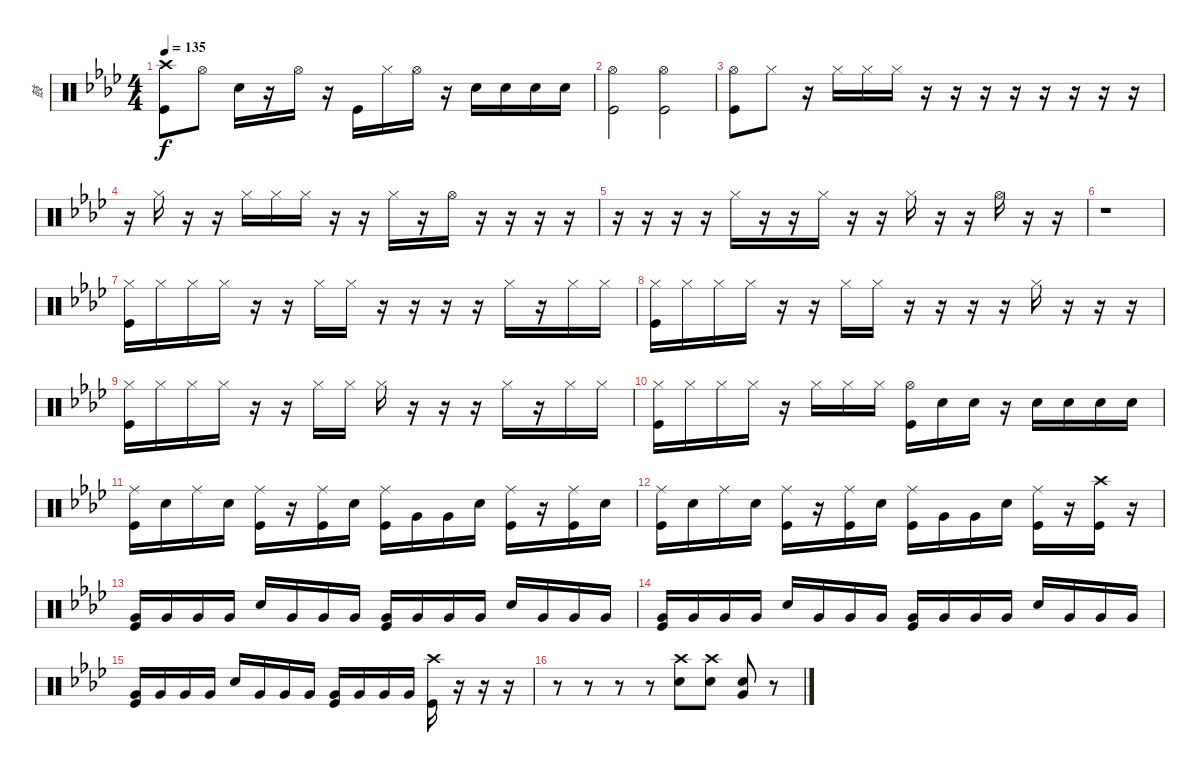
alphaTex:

\track ("鼓" "鼓") {instrument percussion}
\staff {score}
\articulation defaults
\ts (4 4)
\tempo 135
\clef neutral
\ks ab
("Crash high (hit)" "Kick (hit)").8{dy f} "Hi-Hat (open)".8 "Snare (hit) 2".16 r.16 "Hi-Hat (open)".16 r.16 "Kick (hit)".16 "Hi-Hat (closed)".16 "Hi-Hat (open)".16 r.16 "Snare (hit) 2".16 "Snare (hit) 2".16 "Snare (hit) 2".16 "Snare (hit) 2".16 |
("Hi-Hat (open)" "Kick (hit)").2 ("Hi-Hat (open)" "Kick (hit)").2 |
("Hi-Hat (open)" "Kick (hit)").8 "Hi-Hat (closed)".8 r.16 "Hi-Hat (closed)".16 "Hi-Hat (closed)".16 "Hi-Hat (closed)".16 r.16 r.16 r.16 r.16 r.16 r.16 r.16 r.16 |
r.16 "Hi-Hat (closed)".16 r.16 r.16 "Hi-Hat (closed)".16 "Hi-Hat (closed)".16 "Hi-Hat (closed)".16 r.16 r.16 "Hi-Hat (closed)".16 r.16 "Hi-Hat (open)".16 r.16 r.16 r.16 r.16 |
r.16 r.16 r.16 r.16 "Hi-Hat (closed)".16 r.16 r.16 "Hi-Hat (closed)".16 r.16 r.16 "Hi-Hat (closed)".16 r.16 r.16 "Hi-Hat (open)".16 r.16 r.16 |
r.1 |
("Hi-Hat (closed)" "Kick (hit)").16 "Hi-Hat (closed)".16 "Hi-Hat (closed)".16 "Hi-Hat (closed)".16 r.16 r.16 "Hi-Hat (closed)".16 "Hi-Hat (closed)".16 r.16 r.16 r.16 r.16 "Hi-Hat (closed)".16 r.16 "Hi-Hat (closed)".16 "Hi-Hat (closed)".16 |
("Hi-Hat (closed)" "Kick (hit)").16 "Hi-Hat (closed)".16 "Hi-Hat (closed)".16 "Hi-Hat (closed)".16 r.16 r.16 "Hi-Hat (closed)".16 "Hi-Hat (closed)".16 r.16 r.16 r.16 r.16 "Hi-Hat (closed)".16 r.16 r.16 r.16 |
("Hi-Hat (closed)" "Kick (hit)").16 "Hi-Hat (closed)".16 "Hi-Hat (closed)".16 "Hi-Hat (closed)".16 r.16 r.16 "Hi-Hat (closed)".16 "Hi-Hat (closed)".16 "Hi-Hat (closed)".16 r.16 r.16 r.16 "Hi-Hat (closed)".16 r.16 "Hi-Hat (closed)".16 "Hi-Hat (closed)".16 |
("Hi-Hat (closed)" "Kick (hit)").16 "Hi-Hat (closed)".16 "Hi-Hat (closed)".16 "Hi-Hat (closed)".16 r.16 "Hi-Hat (closed)".16 "Hi-Hat (closed)".16 "Hi-Hat (closed)".16 ("Hi-Hat (open)" "Kick (hit)").16 "Snare (hit) 2".16 "Snare (hit) 2".16 r.16 "Snare (hit) 2".16 "Snare (hit) 2".16 "Snare (hit) 2".16 "Snare (hit) 2".16 |
("Ride (middle)" "Kick (hit)").16 "Snare (hit) 2".16 "Ride (middle)".16 "Snare (hit) 2".16 ("Ride (middle)" "Kick (hit)").16 r.16 ("Ride (middle)" "Kick (hit)").16 "Snare (hit) 2".16 ("Ride (middle)" "Kick (hit)").16 "Very Low Tom (hit)".16 "Very Low Tom (hit)".16 "Snare (hit) 2".16 ("Ride (middle)" "Kick (hit)").16 r.16 ("Ride (middle)" "Kick (hit)").16 "Snare (hit) 2".16 |
("Ride (middle)" "Kick (hit)").16 "Snare (hit) 2".16 "Ride (middle)".16 "Snare (hit) 2".16 ("Ride (middle)" "Kick (hit)").16 r.16 ("Ride (middle)" "Kick (hit)").16 "Snare (hit) 2".16 ("Ride (middle)" "Kick (hit)").16 "Very Low Tom (hit)".16 "Very Low Tom (hit)".16 "Snare (hit) 2".16 ("Ride (middle)" "Kick (hit)").16 r.16 ("Crash high (hit)" "Kick (hit)").16 r.16 |
("Very Low Tom (hit)" "Kick (hit)").16 "Very Low Tom (hit)".16 "Very Low Tom (hit)".16 "Very Low Tom (hit)".16 "Snare (hit) 2".16 "Very Low Tom (hit)".16 "Very Low Tom (hit)".16 "Very Low Tom (hit)".16 ("Very Low Tom (hit)" "Kick (hit)").16 "Very Low Tom (hit)".16 "Very Low Tom (hit)".16 "Very Low Tom (hit)".16 "Snare (hit) 2".16 "Very Low Tom (hit)".16 "Very Low Tom (hit)".16 "Very Low Tom (hit)".16 |
("Very Low Tom (hit)" "Kick (hit)").16 "Very Low Tom (hit)".16 "Very Low Tom (hit)".16 "Very Low Tom (hit)".16 "Snare (hit) 2".16 "Very Low Tom (hit)".16 "Very Low Tom (hit)".16 "Very Low Tom (hit)".16 ("Very Low Tom (hit)" "Kick (hit)").16 "Very Low Tom (hit)".16 "Very Low Tom (hit)".16 "Very Low Tom (hit)".16 "Snare (hit) 2".16 "Very Low Tom (hit)".16 "Very Low Tom (hit)".16 "Very Low Tom (hit)".16 |
("Very Low Tom (hit)" "Kick (hit)").16 "Very Low Tom (hit)".16 "Very Low Tom (hit)".16 "Very Low Tom (hit)".16 "Snare (hit) 2".16 "Very Low Tom (hit)".16 "Very Low Tom (hit)".16 "Very Low Tom (hit)".16 ("Very Low Tom (hit)" "Kick (hit)").16 "Very Low Tom (hit)".16 "Very Low Tom (hit)".16 "Very Low Tom (hit)".16 ("Crash high (hit)" "Kick (hit)").16 r.16 r.16 r.16 |
r.8 r.8 r.8 r.8 ("Crash high (hit)" "Snare (hit) 2").8 ("Crash high (hit)" "Snare (hit) 2").8 ("Snare (hit) 2" "Very Low Tom (hit)").8 r.8
